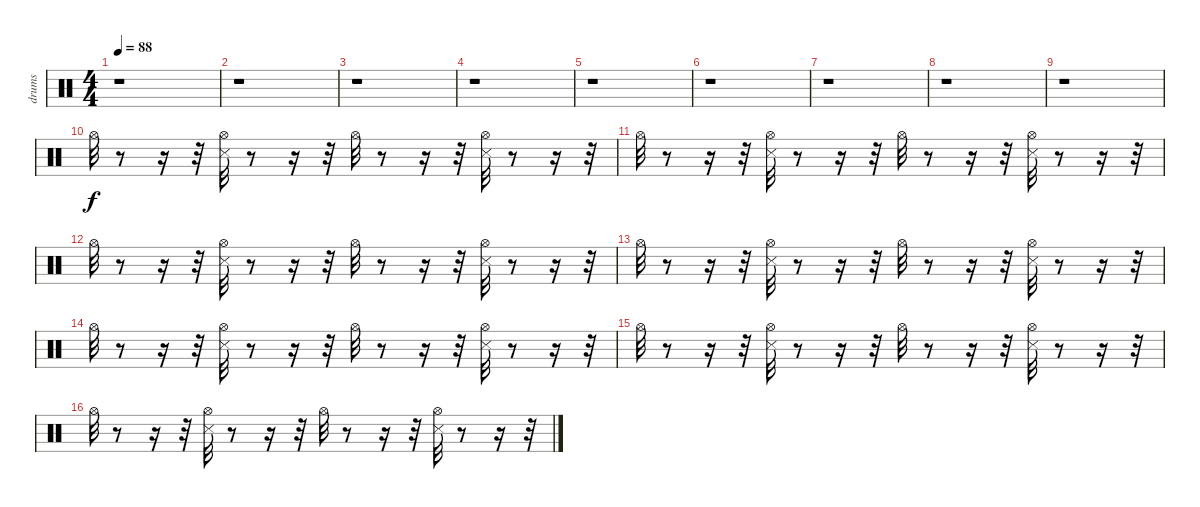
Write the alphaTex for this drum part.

\track ("drums" "drums") {instrument percussion}
\staff {score}
\articulation defaults
\ts (4 4)
\tempo 88
\clef neutral
\ks c
r.1{dy f} |
r.1 |
r.1 |
r.1 |
r.1 |
r.1 |
r.1 |
r.1 |
r.1 |
"Hi-Hat (open)".32 r.8 r.16 r.32 ("Snare (side stick) 3" "Hi-Hat (open)").32 r.8 r.16 r.32 "Hi-Hat (open)".32 r.8 r.16 r.32 ("Snare (side stick) 3" "Hi-Hat (open)").32 r.8 r.16 r.32 |
"Hi-Hat (open)".32 r.8 r.16 r.32 ("Snare (side stick) 3" "Hi-Hat (open)").32 r.8 r.16 r.32 "Hi-Hat (open)".32 r.8 r.16 r.32 ("Snare (side stick) 3" "Hi-Hat (open)").32 r.8 r.16 r.32 |
"Hi-Hat (open)".32 r.8 r.16 r.32 ("Snare (side stick) 3" "Hi-Hat (open)").32 r.8 r.16 r.32 "Hi-Hat (open)".32 r.8 r.16 r.32 ("Snare (side stick) 3" "Hi-Hat (open)").32 r.8 r.16 r.32 |
"Hi-Hat (open)".32 r.8 r.16 r.32 ("Snare (side stick) 3" "Hi-Hat (open)").32 r.8 r.16 r.32 "Hi-Hat (open)".32 r.8 r.16 r.32 ("Snare (side stick) 3" "Hi-Hat (open)").32 r.8 r.16 r.32 |
"Hi-Hat (open)".32 r.8 r.16 r.32 ("Snare (side stick) 3" "Hi-Hat (open)").32 r.8 r.16 r.32 "Hi-Hat (open)".32 r.8 r.16 r.32 ("Snare (side stick) 3" "Hi-Hat (open)").32 r.8 r.16 r.32 |
"Hi-Hat (open)".32 r.8 r.16 r.32 ("Snare (side stick) 3" "Hi-Hat (open)").32 r.8 r.16 r.32 "Hi-Hat (open)".32 r.8 r.16 r.32 ("Snare (side stick) 3" "Hi-Hat (open)").32 r.8 r.16 r.32 |
"Hi-Hat (open)".32 r.8 r.16 r.32 ("Snare (side stick) 3" "Hi-Hat (open)").32 r.8 r.16 r.32 "Hi-Hat (open)".32 r.8 r.16 r.32 ("Snare (side stick) 3" "Hi-Hat (open)").32 r.8 r.16 r.32
